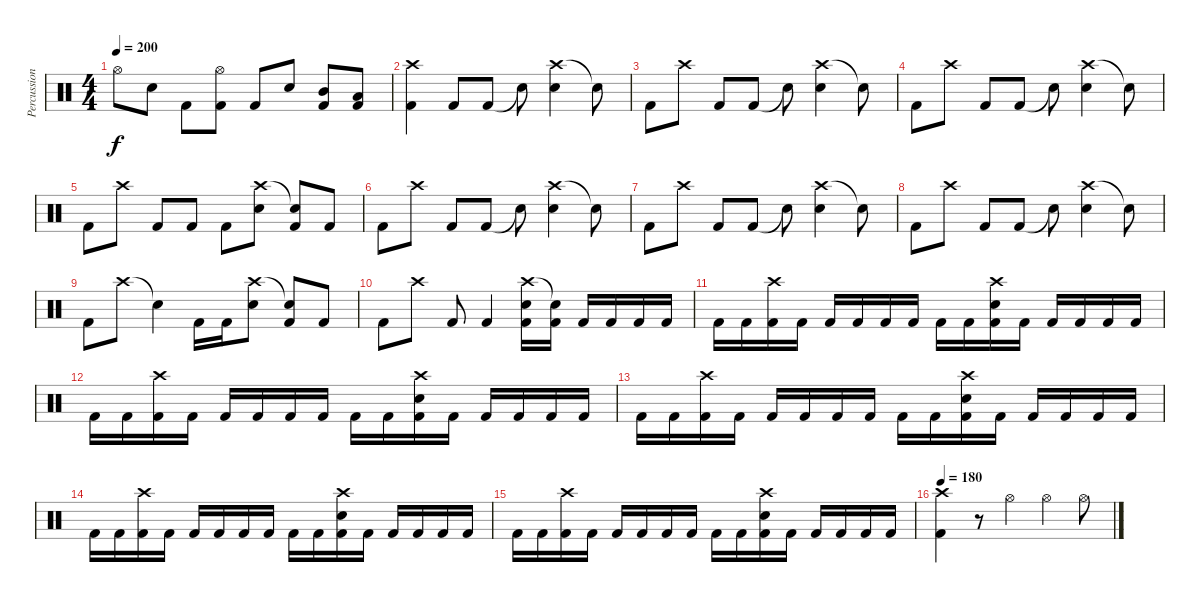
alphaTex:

\track ("Percussion" "Percussion") {instrument percussion}
\staff {score}
\articulation defaults
\ts (4 4)
\tempo 200
\clef neutral
\ks c "Hi-Hat (open)".8{dy f} "Snare (hit) 2".8 "Kick (hit) 2".8
("Hi-Hat (open)" "Kick (hit) 2").8 "Kick (hit) 2".8 "Snare (hit) 2".8 ("Mid Tom (hit)" "Kick (hit) 2").8 ("Low Tom (hit)" "Kick (hit) 2").8 |
("Crash high (hit)" "Kick (hit) 2").4 "Kick (hit) 2".8 "Kick (hit) 2".8 "Snare (hit)"{t}.8 ("Crash high (hit)" "Snare (hit) 2").4 "Snare (hit)"{t}.8 |
"Kick (hit) 2".8 "Crash high (hit)".8 "Kick (hit) 2".8 "Kick (hit) 2".8 "Snare (hit)"{t}.8 ("Crash high (hit)" "Snare (hit) 2").4 "Snare (hit)"{t}.8 |
"Kick (hit) 2".8 "Crash high (hit)".8 "Kick (hit) 2".8 "Kick (hit) 2".8 "Snare (hit)"{t}.8 ("Crash high (hit)" "Snare (hit) 2").4 "Snare (hit)"{t}.8 |
"Kick (hit) 2".8 "Crash high (hit)".8 "Kick (hit) 2".8 "Kick (hit) 2".8 "Kick (hit) 2".8 ("Crash high (hit)" "Snare (hit) 2").8 ("Snare (hit)"{t} "Kick (hit) 2").8 "Kick (hit) 2".8 |
"Kick (hit) 2".8 "Crash high (hit)".8 "Kick (hit) 2".8 "Kick (hit) 2".8 "Snare (hit)"{t}.8 ("Crash high (hit)" "Snare (hit) 2").4 "Snare (hit)"{t}.8 |
"Kick (hit) 2".8 "Crash high (hit)".8 "Kick (hit) 2".8 "Kick (hit) 2".8 "Snare (hit)"{t}.8 ("Crash high (hit)" "Snare (hit) 2").4 "Snare (hit)"{t}.8 |
"Kick (hit) 2".8 "Crash high (hit)".8 "Kick (hit) 2".8 "Kick (hit) 2".8 "Snare (hit)"{t}.8 ("Crash high (hit)" "Snare (hit) 2").4 "Snare (hit)"{t}.8 |
"Kick (hit) 2".8 "Crash high (hit)".8 "Snare (hit)"{t}.4 "Kick (hit) 2".16 "Kick (hit) 2".16 ("Crash high (hit)" "Snare (hit) 2").8 ("Snare (hit)"{t} "Kick (hit) 2").8 "Kick (hit) 2".8 |
"Kick (hit) 2".8 "Crash high (hit)".8 "Kick (hit) 2".8 "Kick (hit) 2".4 ("Crash high (hit)" "Snare (hit) 2" "Kick (hit) 2").16 ("Snare (hit)"{t} "Kick (hit) 2").16 "Kick (hit) 2".16 "Kick (hit) 2".16 "Kick (hit) 2".16 "Kick (hit) 2".16 |
"Kick (hit) 2".16 "Kick (hit) 2".16 ("Crash high (hit)" "Kick (hit) 2").16 "Kick (hit) 2".16 "Kick (hit) 2".16 "Kick (hit) 2".16 "Kick (hit) 2".16 "Kick (hit) 2".16 "Kick (hit) 2".16 "Kick (hit) 2".16 ("Crash high (hit)" "Snare (hit) 2" "Kick (hit) 2").16 "Kick (hit) 2".16 "Kick (hit) 2".16 "Kick (hit) 2".16 "Kick (hit) 2".16 "Kick (hit) 2".16 |
"Kick (hit) 2".16 "Kick (hit) 2".16 ("Crash high (hit)" "Kick (hit) 2").16 "Kick (hit) 2".16 "Kick (hit) 2".16 "Kick (hit) 2".16 "Kick (hit) 2".16 "Kick (hit) 2".16 "Kick (hit) 2".16 "Kick (hit) 2".16 ("Crash high (hit)" "Snare (hit) 2" "Kick (hit) 2").16 "Kick (hit) 2".16 "Kick (hit) 2".16 "Kick (hit) 2".16 "Kick (hit) 2".16 "Kick (hit) 2".16 |
"Kick (hit) 2".16 "Kick (hit) 2".16 ("Crash high (hit)" "Kick (hit) 2").16 "Kick (hit) 2".16 "Kick (hit) 2".16 "Kick (hit) 2".16 "Kick (hit) 2".16 "Kick (hit) 2".16 "Kick (hit) 2".16 "Kick (hit) 2".16 ("Crash high (hit)" "Snare (hit) 2" "Kick (hit) 2").16 "Kick (hit) 2".16 "Kick (hit) 2".16 "Kick (hit) 2".16 "Kick (hit) 2".16 "Kick (hit) 2".16 |
"Kick (hit) 2".16 "Kick (hit) 2".16 ("Crash high (hit)" "Kick (hit) 2").16 "Kick (hit) 2".16 "Kick (hit) 2".16 "Kick (hit) 2".16 "Kick (hit) 2".16 "Kick (hit) 2".16 "Kick (hit) 2".16 "Kick (hit) 2".16 ("Crash high (hit)" "Snare (hit) 2" "Kick (hit) 2").16 "Kick (hit) 2".16 "Kick (hit) 2".16 "Kick (hit) 2".16 "Kick (hit) 2".16 "Kick (hit) 2".16 |
"Kick (hit) 2".16 "Kick (hit) 2".16 ("Crash high (hit)" "Kick (hit) 2").16 "Kick (hit) 2".16 "Kick (hit) 2".16 "Kick (hit) 2".16 "Kick (hit) 2".16 "Kick (hit) 2".16 "Kick (hit) 2".16 "Kick (hit) 2".16 ("Crash high (hit)" "Snare (hit) 2" "Kick (hit) 2").16 "Kick (hit) 2".16 "Kick (hit) 2".16 "Kick (hit) 2".16 "Kick (hit) 2".16 "Kick (hit) 2".16 |
\tempo 180
("Crash high (hit)" "Kick (hit) 2").4 r.8 "Hi-Hat (open)".4 "Hi-Hat (open)".4 "Hi-Hat (open)".8
